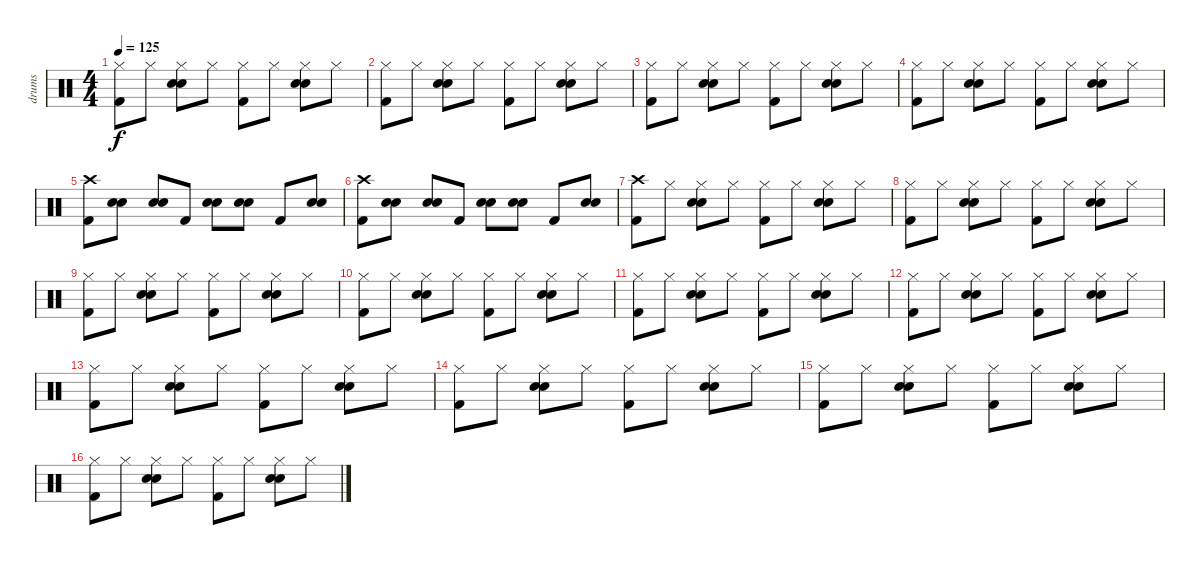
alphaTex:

\track ("drums" "drums") {instrument percussion}
\staff {score}
\articulation defaults
\ts (4 4)
\tempo 125
\clef neutral
\ks c
("Hi-Hat (closed)" "Kick (hit) 2").8{dy f} "Hi-Hat (closed)".8 ("Hi-Hat (closed)" "Snare (hit) 2" "Electric Snare (hit)").8 "Hi-Hat (closed)".8 ("Hi-Hat (closed)" "Kick (hit) 2").8 "Hi-Hat (closed)".8 ("Hi-Hat (closed)" "Snare (hit) 2" "Electric Snare (hit)").8 "Hi-Hat (closed)".8 |
("Hi-Hat (closed)" "Kick (hit) 2").8 "Hi-Hat (closed)".8 ("Hi-Hat (closed)" "Snare (hit) 2" "Electric Snare (hit)").8 "Hi-Hat (closed)".8 ("Hi-Hat (closed)" "Kick (hit) 2").8 "Hi-Hat (closed)".8 ("Hi-Hat (closed)" "Snare (hit) 2" "Electric Snare (hit)").8 "Hi-Hat (closed)".8 |
("Hi-Hat (closed)" "Kick (hit) 2").8 "Hi-Hat (closed)".8 ("Hi-Hat (closed)" "Snare (hit) 2" "Electric Snare (hit)").8 "Hi-Hat (closed)".8 ("Hi-Hat (closed)" "Kick (hit) 2").8 "Hi-Hat (closed)".8 ("Hi-Hat (closed)" "Snare (hit) 2" "Electric Snare (hit)").8 "Hi-Hat (closed)".8 |
("Hi-Hat (closed)" "Kick (hit) 2").8 "Hi-Hat (closed)".8 ("Hi-Hat (closed)" "Snare (hit) 2" "Electric Snare (hit)").8 "Hi-Hat (closed)".8 ("Hi-Hat (closed)" "Kick (hit) 2").8 "Hi-Hat (closed)".8 ("Hi-Hat (closed)" "Snare (hit) 2" "Electric Snare (hit)").8 "Hi-Hat (closed)".8 |
("Crash high (hit)" "Kick (hit) 2").8 ("Snare (hit) 2" "Electric Snare (hit)").8 ("Snare (hit) 2" "Electric Snare (hit)").8 "Kick (hit) 2".8 ("Electric Snare (hit)" "Snare (hit) 2").8 ("Electric Snare (hit)" "Snare (hit) 2").8 "Kick (hit) 2".8 ("Electric Snare (hit)" "Snare (hit) 2").8 |
("Crash high (hit)" "Kick (hit) 2").8 ("Snare (hit) 2" "Electric Snare (hit)").8 ("Snare (hit) 2" "Electric Snare (hit)").8 "Kick (hit) 2".8 ("Electric Snare (hit)" "Snare (hit) 2").8 ("Electric Snare (hit)" "Snare (hit) 2").8 "Kick (hit) 2".8 ("Electric Snare (hit)" "Snare (hit) 2").8 |
("Crash high (hit)" "Kick (hit) 2").8 "Hi-Hat (closed)".8 ("Hi-Hat (closed)" "Snare (hit) 2" "Electric Snare (hit)").8 "Hi-Hat (closed)".8 ("Hi-Hat (closed)" "Kick (hit) 2").8 "Hi-Hat (closed)".8 ("Hi-Hat (closed)" "Snare (hit) 2" "Electric Snare (hit)").8 "Hi-Hat (closed)".8 |
("Hi-Hat (closed)" "Kick (hit) 2").8 "Hi-Hat (closed)".8 ("Hi-Hat (closed)" "Snare (hit) 2" "Electric Snare (hit)").8 "Hi-Hat (closed)".8 ("Hi-Hat (closed)" "Kick (hit) 2").8 "Hi-Hat (closed)".8 ("Hi-Hat (closed)" "Snare (hit) 2" "Electric Snare (hit)").8 "Hi-Hat (closed)".8 |
("Hi-Hat (closed)" "Kick (hit) 2").8 "Hi-Hat (closed)".8 ("Hi-Hat (closed)" "Snare (hit) 2" "Electric Snare (hit)").8 "Hi-Hat (closed)".8 ("Hi-Hat (closed)" "Kick (hit) 2").8 "Hi-Hat (closed)".8 ("Hi-Hat (closed)" "Snare (hit) 2" "Electric Snare (hit)").8 "Hi-Hat (closed)".8 |
("Hi-Hat (closed)" "Kick (hit) 2").8 "Hi-Hat (closed)".8 ("Hi-Hat (closed)" "Snare (hit) 2" "Electric Snare (hit)").8 "Hi-Hat (closed)".8 ("Hi-Hat (closed)" "Kick (hit) 2").8 "Hi-Hat (closed)".8 ("Hi-Hat (closed)" "Snare (hit) 2" "Electric Snare (hit)").8 "Hi-Hat (closed)".8 |
("Hi-Hat (closed)" "Kick (hit) 2").8 "Hi-Hat (closed)".8 ("Hi-Hat (closed)" "Snare (hit) 2" "Electric Snare (hit)").8 "Hi-Hat (closed)".8 ("Hi-Hat (closed)" "Kick (hit) 2").8 "Hi-Hat (closed)".8 ("Hi-Hat (closed)" "Snare (hit) 2" "Electric Snare (hit)").8 "Hi-Hat (closed)".8 |
("Hi-Hat (closed)" "Kick (hit) 2").8 "Hi-Hat (closed)".8 ("Hi-Hat (closed)" "Snare (hit) 2" "Electric Snare (hit)").8 "Hi-Hat (closed)".8 ("Hi-Hat (closed)" "Kick (hit) 2").8 "Hi-Hat (closed)".8 ("Hi-Hat (closed)" "Snare (hit) 2" "Electric Snare (hit)").8 "Hi-Hat (closed)".8 |
("Hi-Hat (closed)" "Kick (hit) 2").8 "Hi-Hat (closed)".8 ("Hi-Hat (closed)" "Snare (hit) 2" "Electric Snare (hit)").8 "Hi-Hat (closed)".8 ("Hi-Hat (closed)" "Kick (hit) 2").8 "Hi-Hat (closed)".8 ("Hi-Hat (closed)" "Snare (hit) 2" "Electric Snare (hit)").8 "Hi-Hat (closed)".8 |
("Hi-Hat (closed)" "Kick (hit) 2").8 "Hi-Hat (closed)".8 ("Hi-Hat (closed)" "Snare (hit) 2" "Electric Snare (hit)").8 "Hi-Hat (closed)".8 ("Hi-Hat (closed)" "Kick (hit) 2").8 "Hi-Hat (closed)".8 ("Hi-Hat (closed)" "Snare (hit) 2" "Electric Snare (hit)").8 "Hi-Hat (closed)".8 |
("Hi-Hat (closed)" "Kick (hit) 2").8 "Hi-Hat (closed)".8 ("Hi-Hat (closed)" "Snare (hit) 2" "Electric Snare (hit)").8 "Hi-Hat (closed)".8 ("Hi-Hat (closed)" "Kick (hit) 2").8 "Hi-Hat (closed)".8 ("Hi-Hat (closed)" "Snare (hit) 2" "Electric Snare (hit)").8 "Hi-Hat (closed)".8 |
("Hi-Hat (closed)" "Kick (hit) 2").8 "Hi-Hat (closed)".8 ("Hi-Hat (closed)" "Snare (hit) 2" "Electric Snare (hit)").8 "Hi-Hat (closed)".8 ("Hi-Hat (closed)" "Kick (hit) 2").8 "Hi-Hat (closed)".8 ("Hi-Hat (closed)" "Snare (hit) 2" "Electric Snare (hit)").8 "Hi-Hat (closed)".8
